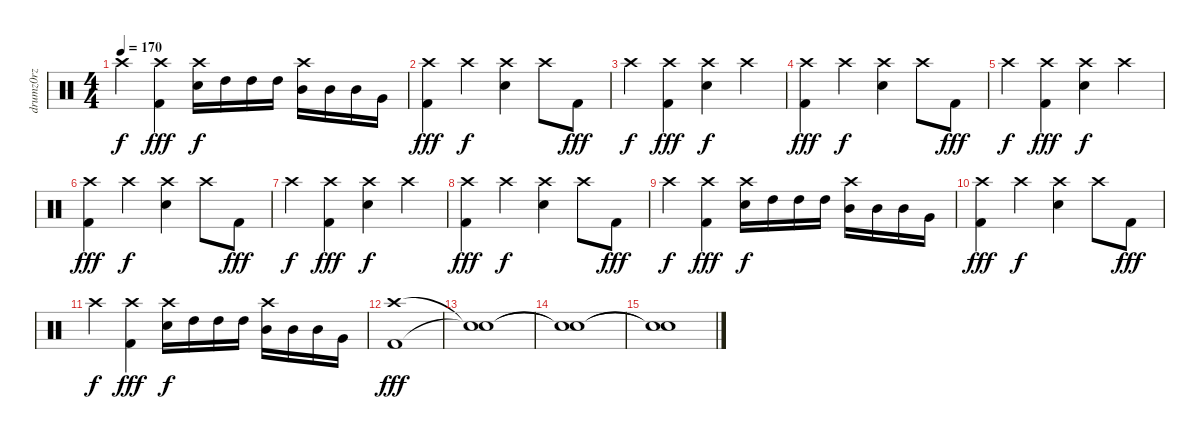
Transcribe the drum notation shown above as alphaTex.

\track ("drumz0rz" "drumz0rz") {instrument percussion}
\staff {score}
\articulation defaults
\ts (4 4)
\tempo 170
\clef neutral
\ks c "Crash high (hit)".4{dy f}
("Crash high (hit)" "Kick (hit) 2").4{dy fff} ("Crash high (hit)" "Electric Snare (hit)").16{dy f} "High Tom (hit)".16 "High Tom (hit)".16 "High Tom (hit)".16 ("Crash high (hit)" "Mid Tom (hit)").16 "Mid Tom (hit)".16 "Mid Tom (hit)".16 "Very Low Tom (hit)".16 |
("Crash high (hit)" "Kick (hit) 2").4{dy fff} "Crash high (hit)".4{dy f} ("Crash high (hit)" "Electric Snare (hit)").4 "Crash high (hit)".8 "Kick (hit) 2".8{dy fff} |
"Crash high (hit)".4{dy f} ("Crash high (hit)" "Kick (hit) 2").4{dy fff} ("Crash high (hit)" "Electric Snare (hit)").4{dy f} "Crash high (hit)".4 |
("Crash high (hit)" "Kick (hit) 2").4{dy fff} "Crash high (hit)".4{dy f} ("Crash high (hit)" "Electric Snare (hit)").4 "Crash high (hit)".8 "Kick (hit) 2".8{dy fff} |
"Crash high (hit)".4{dy f} ("Crash high (hit)" "Kick (hit) 2").4{dy fff} ("Crash high (hit)" "Electric Snare (hit)").4{dy f} "Crash high (hit)".4 |
("Crash high (hit)" "Kick (hit) 2").4{dy fff} "Crash high (hit)".4{dy f} ("Crash high (hit)" "Electric Snare (hit)").4 "Crash high (hit)".8 "Kick (hit) 2".8{dy fff} |
"Crash high (hit)".4{dy f} ("Crash high (hit)" "Kick (hit) 2").4{dy fff} ("Crash high (hit)" "Electric Snare (hit)").4{dy f} "Crash high (hit)".4 |
("Crash high (hit)" "Kick (hit) 2").4{dy fff} "Crash high (hit)".4{dy f} ("Crash high (hit)" "Electric Snare (hit)").4 "Crash high (hit)".8 "Kick (hit) 2".8{dy fff} |
"Crash high (hit)".4{dy f} ("Crash high (hit)" "Kick (hit) 2").4{dy fff} ("Crash high (hit)" "Electric Snare (hit)").16{dy f} "High Tom (hit)".16 "High Tom (hit)".16 "High Tom (hit)".16 ("Crash high (hit)" "Mid Tom (hit)").16 "Mid Tom (hit)".16 "Mid Tom (hit)".16 "Very Low Tom (hit)".16 |
("Crash high (hit)" "Kick (hit) 2").4{dy fff} "Crash high (hit)".4{dy f} ("Crash high (hit)" "Electric Snare (hit)").4 "Crash high (hit)".8 "Kick (hit) 2".8{dy fff} |
"Crash high (hit)".4{dy f} ("Crash high (hit)" "Kick (hit) 2").4{dy fff} ("Crash high (hit)" "Electric Snare (hit)").16{dy f} "High Tom (hit)".16 "High Tom (hit)".16 "High Tom (hit)".16 ("Crash high (hit)" "Mid Tom (hit)").16 "Mid Tom (hit)".16 "Mid Tom (hit)".16 "Very Low Tom (hit)".16 |
("Crash high (hit)" "Kick (hit) 2").1{dy fff} |
("Snare (hit)"{t} "Snare (hit)"{t}).1 |
("Snare (hit)"{t} "Snare (hit)"{t}).1 |
("Snare (hit)"{t} "Snare (hit)"{t}).1
